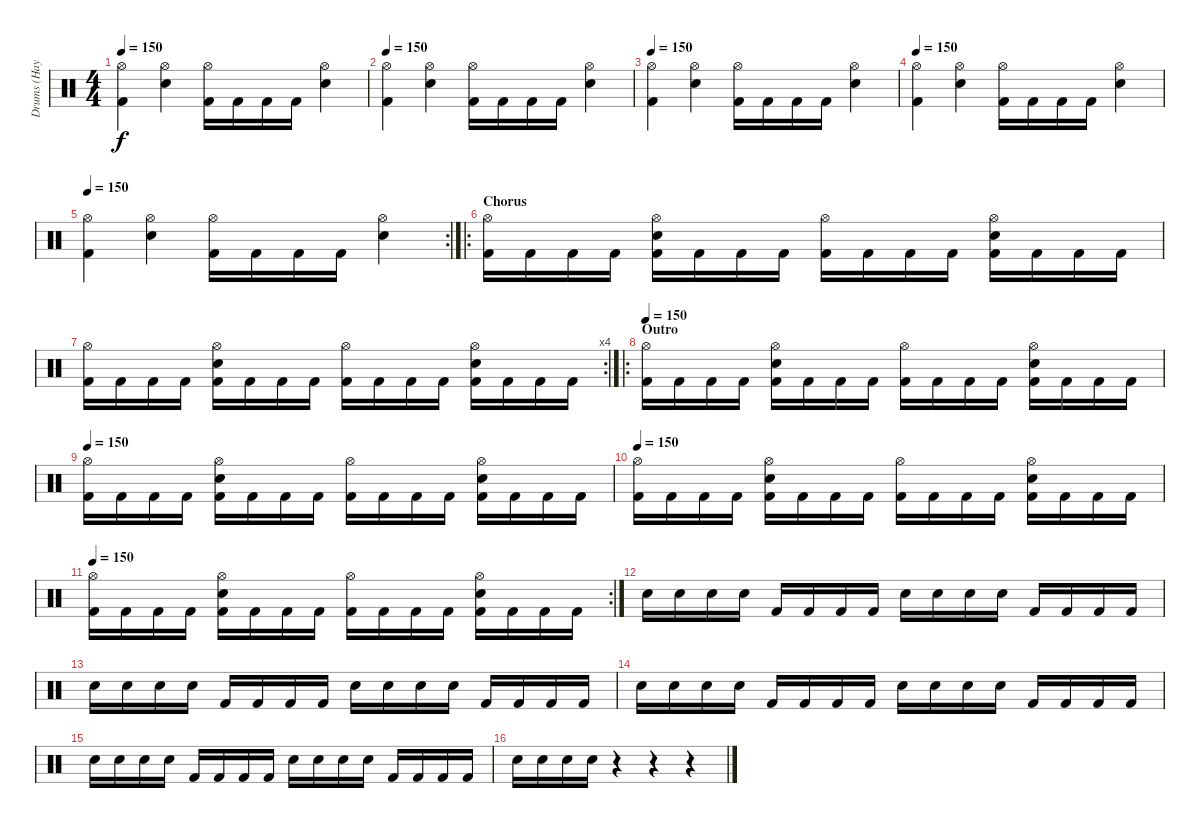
\track ("Drums (Hayden)" "Drums (Hay") {instrument percussion}
\staff {score}
\articulation defaults
\ts (4 4)
\tempo 150
\clef neutral
\ks c
("Hi-Hat (open)" "Kick (hit) 2").4{dy f} ("Hi-Hat (open)" "Electric Snare (hit)").4 ("Hi-Hat (open)" "Kick (hit) 2").16 "Kick (hit) 2".16 "Kick (hit) 2".16 "Kick (hit) 2".16 ("Hi-Hat (open)" "Electric Snare (hit)").4 |
\tempo 150
("Hi-Hat (open)" "Kick (hit) 2").4 ("Hi-Hat (open)" "Electric Snare (hit)").4 ("Hi-Hat (open)" "Kick (hit) 2").16 "Kick (hit) 2".16 "Kick (hit) 2".16 "Kick (hit) 2".16 ("Hi-Hat (open)" "Electric Snare (hit)").4 |
\tempo 150
("Hi-Hat (open)" "Kick (hit) 2").4 ("Hi-Hat (open)" "Electric Snare (hit)").4 ("Hi-Hat (open)" "Kick (hit) 2").16 "Kick (hit) 2".16 "Kick (hit) 2".16 "Kick (hit) 2".16 ("Hi-Hat (open)" "Electric Snare (hit)").4 |
\tempo 150
("Hi-Hat (open)" "Kick (hit) 2").4 ("Hi-Hat (open)" "Electric Snare (hit)").4 ("Hi-Hat (open)" "Kick (hit) 2").16 "Kick (hit) 2".16 "Kick (hit) 2".16 "Kick (hit) 2".16 ("Hi-Hat (open)" "Electric Snare (hit)").4 |
\rc 2
\tempo 150
("Hi-Hat (open)" "Kick (hit) 2").4 ("Hi-Hat (open)" "Electric Snare (hit)").4 ("Hi-Hat (open)" "Kick (hit) 2").16 "Kick (hit) 2".16 "Kick (hit) 2".16 "Kick (hit) 2".16 ("Hi-Hat (open)" "Electric Snare (hit)").4 |
\ro
\section ("" "Chorus")
("Kick (hit) 2" "Hi-Hat (open)").16 "Kick (hit) 2".16 "Kick (hit) 2".16 "Kick (hit) 2".16 ("Kick (hit) 2" "Hi-Hat (open)" "Electric Snare (hit)").16 "Kick (hit) 2".16 "Kick (hit) 2".16 "Kick (hit) 2".16 ("Kick (hit) 2" "Hi-Hat (open)").16 "Kick (hit) 2".16 "Kick (hit) 2".16 "Kick (hit) 2".16 ("Kick (hit) 2" "Hi-Hat (open)" "Electric Snare (hit)").16 "Kick (hit) 2".16 "Kick (hit) 2".16 "Kick (hit) 2".16 |
\rc 4
("Kick (hit) 2" "Hi-Hat (open)").16 "Kick (hit) 2".16 "Kick (hit) 2".16 "Kick (hit) 2".16 ("Kick (hit) 2" "Hi-Hat (open)" "Electric Snare (hit)").16 "Kick (hit) 2".16 "Kick (hit) 2".16 "Kick (hit) 2".16 ("Kick (hit) 2" "Hi-Hat (open)").16 "Kick (hit) 2".16 "Kick (hit) 2".16 "Kick (hit) 2".16 ("Kick (hit) 2" "Hi-Hat (open)" "Electric Snare (hit)").16 "Kick (hit) 2".16 "Kick (hit) 2".16 "Kick (hit) 2".16 |
\ro
\section ("" "Outro ")
\tempo 150
("Kick (hit) 2" "Hi-Hat (open)").16 "Kick (hit) 2".16 "Kick (hit) 2".16 "Kick (hit) 2".16 ("Kick (hit) 2" "Hi-Hat (open)" "Electric Snare (hit)").16 "Kick (hit) 2".16 "Kick (hit) 2".16 "Kick (hit) 2".16 ("Kick (hit) 2" "Hi-Hat (open)").16 "Kick (hit) 2".16 "Kick (hit) 2".16 "Kick (hit) 2".16 ("Kick (hit) 2" "Hi-Hat (open)" "Electric Snare (hit)").16 "Kick (hit) 2".16 "Kick (hit) 2".16 "Kick (hit) 2".16 |
\tempo 150
("Kick (hit) 2" "Hi-Hat (open)").16 "Kick (hit) 2".16 "Kick (hit) 2".16 "Kick (hit) 2".16 ("Kick (hit) 2" "Hi-Hat (open)" "Electric Snare (hit)").16 "Kick (hit) 2".16 "Kick (hit) 2".16 "Kick (hit) 2".16 ("Kick (hit) 2" "Hi-Hat (open)").16 "Kick (hit) 2".16 "Kick (hit) 2".16 "Kick (hit) 2".16 ("Kick (hit) 2" "Hi-Hat (open)" "Electric Snare (hit)").16 "Kick (hit) 2".16 "Kick (hit) 2".16 "Kick (hit) 2".16 |
\tempo 150
("Kick (hit) 2" "Hi-Hat (open)").16 "Kick (hit) 2".16 "Kick (hit) 2".16 "Kick (hit) 2".16 ("Kick (hit) 2" "Hi-Hat (open)" "Electric Snare (hit)").16 "Kick (hit) 2".16 "Kick (hit) 2".16 "Kick (hit) 2".16 ("Kick (hit) 2" "Hi-Hat (open)").16 "Kick (hit) 2".16 "Kick (hit) 2".16 "Kick (hit) 2".16 ("Kick (hit) 2" "Hi-Hat (open)" "Electric Snare (hit)").16 "Kick (hit) 2".16 "Kick (hit) 2".16 "Kick (hit) 2".16 |
\rc 2
\tempo 150
("Kick (hit) 2" "Hi-Hat (open)").16 "Kick (hit) 2".16 "Kick (hit) 2".16 "Kick (hit) 2".16 ("Kick (hit) 2" "Hi-Hat (open)" "Electric Snare (hit)").16 "Kick (hit) 2".16 "Kick (hit) 2".16 "Kick (hit) 2".16 ("Kick (hit) 2" "Hi-Hat (open)").16 "Kick (hit) 2".16 "Kick (hit) 2".16 "Kick (hit) 2".16 ("Kick (hit) 2" "Hi-Hat (open)" "Electric Snare (hit)").16 "Kick (hit) 2".16 "Kick (hit) 2".16 "Kick (hit) 2".16 |
"Electric Snare (hit)".16 "Electric Snare (hit)".16 "Electric Snare (hit)".16 "Electric Snare (hit)".16 "Kick (hit) 2".16 "Kick (hit) 2".16 "Kick (hit) 2".16 "Kick (hit) 2".16 "Electric Snare (hit)".16 "Electric Snare (hit)".16 "Electric Snare (hit)".16 "Electric Snare (hit)".16 "Kick (hit) 2".16 "Kick (hit) 2".16 "Kick (hit) 2".16 "Kick (hit) 2".16 |
"Electric Snare (hit)".16 "Electric Snare (hit)".16 "Electric Snare (hit)".16 "Electric Snare (hit)".16 "Kick (hit) 2".16 "Kick (hit) 2".16 "Kick (hit) 2".16 "Kick (hit) 2".16 "Electric Snare (hit)".16 "Electric Snare (hit)".16 "Electric Snare (hit)".16 "Electric Snare (hit)".16 "Kick (hit) 2".16 "Kick (hit) 2".16 "Kick (hit) 2".16 "Kick (hit) 2".16 |
"Electric Snare (hit)".16 "Electric Snare (hit)".16 "Electric Snare (hit)".16 "Electric Snare (hit)".16 "Kick (hit) 2".16 "Kick (hit) 2".16 "Kick (hit) 2".16 "Kick (hit) 2".16 "Electric Snare (hit)".16 "Electric Snare (hit)".16 "Electric Snare (hit)".16 "Electric Snare (hit)".16 "Kick (hit) 2".16 "Kick (hit) 2".16 "Kick (hit) 2".16 "Kick (hit) 2".16 |
"Electric Snare (hit)".16 "Electric Snare (hit)".16 "Electric Snare (hit)".16 "Electric Snare (hit)".16 "Kick (hit) 2".16 "Kick (hit) 2".16 "Kick (hit) 2".16 "Kick (hit) 2".16 "Electric Snare (hit)".16 "Electric Snare (hit)".16 "Electric Snare (hit)".16 "Electric Snare (hit)".16 "Kick (hit) 2".16 "Kick (hit) 2".16 "Kick (hit) 2".16 "Kick (hit) 2".16 |
"Electric Snare (hit)".16 "Electric Snare (hit)".16 "Electric Snare (hit)".16 "Electric Snare (hit)".16 r.4 r.4 r.4
